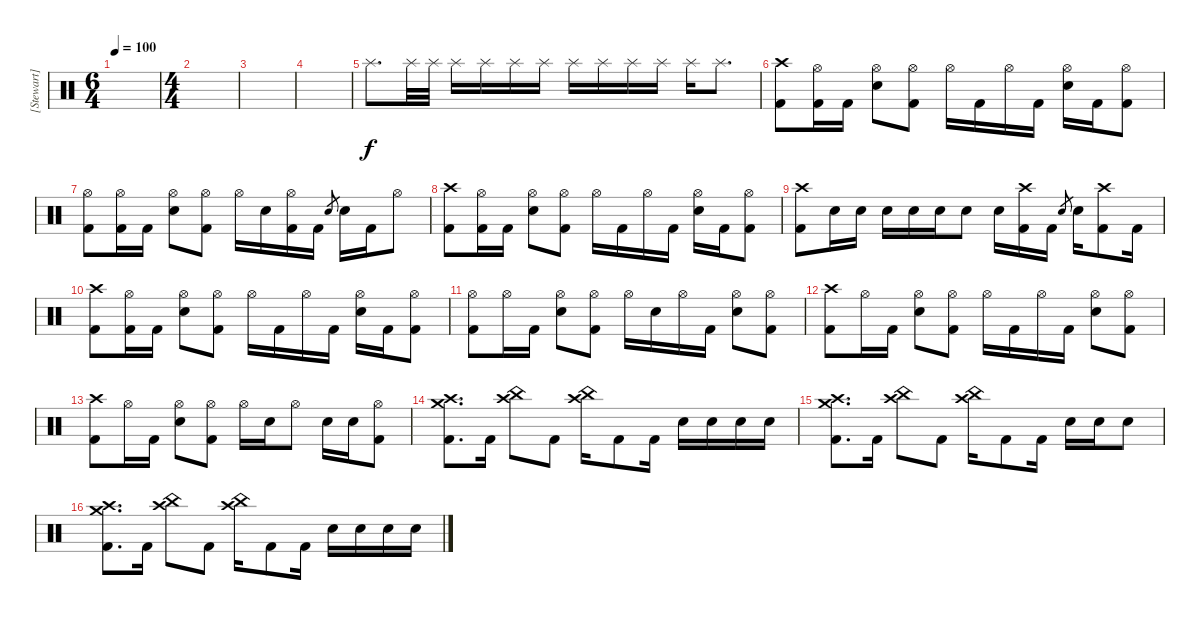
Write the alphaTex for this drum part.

\track ("[Stewart]" "[Stewart]") {instrument percussion}
\staff {score}
\articulation defaults
\ts (6 4)
\tempo 100
\clef neutral
\ks c
|
\ts (4 4)
|
|
|
"Splash (hit)".8{d} "Splash (hit)".32 "Splash (hit)".32 "Splash (hit)".16 "Splash (hit)".16 "Splash (hit)".16 "Splash (hit)".16 "Splash (hit)".16 "Splash (hit)".16 "Splash (hit)".16 "Splash (hit)".16 "Splash (hit)".16 "Splash (hit)".8{d} |
("Crash high (hit)" "Kick (hit) 2").8{dy f} ("Hi-Hat (open)" "Kick (hit) 2").16 "Kick (hit) 2".16 ("Hi-Hat (open)" "Electric Snare (hit)").8 ("Hi-Hat (open)" "Kick (hit) 2").8 "Hi-Hat (open)".16 "Kick (hit) 2".16 "Hi-Hat (open)".16 "Kick (hit) 2".16 ("Hi-Hat (open)" "Electric Snare (hit)").16 "Kick (hit) 2".16 ("Hi-Hat (open)" "Kick (hit) 2").8 |
("Hi-Hat (open)" "Kick (hit) 2").8 ("Hi-Hat (open)" "Kick (hit) 2").16 "Kick (hit) 2".16 ("Hi-Hat (open)" "Electric Snare (hit)").8 ("Hi-Hat (open)" "Kick (hit) 2").8 "Hi-Hat (open)".16 "Electric Snare (hit)".16 ("Hi-Hat (open)" "Kick (hit) 2").16 "Kick (hit) 2".16 "Electric Snare (hit)".8{gr} "Electric Snare (hit)".16 "Kick (hit) 2".16 "Hi-Hat (open)".8 |
("Crash high (hit)" "Kick (hit) 2").8 ("Hi-Hat (open)" "Kick (hit) 2").16 "Kick (hit) 2".16 ("Hi-Hat (open)" "Electric Snare (hit)").8 ("Hi-Hat (open)" "Kick (hit) 2").8 "Hi-Hat (open)".16 "Kick (hit) 2".16 "Hi-Hat (open)".16 "Kick (hit) 2".16 ("Hi-Hat (open)" "Electric Snare (hit)").16 "Kick (hit) 2".16 ("Hi-Hat (open)" "Kick (hit) 2").8 |
("Crash high (hit)" "Kick (hit) 2").8 "Electric Snare (hit)".16 "Electric Snare (hit)".16 "Electric Snare (hit)".16 "Electric Snare (hit)".16 "Electric Snare (hit)".16 "Electric Snare (hit)".8 "Electric Snare (hit)".16 ("Crash high (hit)" "Kick (hit) 2").16 "Kick (hit) 2".16 "Electric Snare (hit)".8{gr} "Electric Snare (hit)".16 ("Crash high (hit)" "Kick (hit) 2").8 "Kick (hit) 2".16 |
("Crash high (hit)" "Kick (hit) 2").8 ("Hi-Hat (open)" "Kick (hit) 2").16 "Kick (hit) 2".16 ("Hi-Hat (open)" "Electric Snare (hit)").8 ("Hi-Hat (open)" "Kick (hit) 2").8 "Hi-Hat (open)".16 "Kick (hit) 2".16 "Hi-Hat (open)".16 "Kick (hit) 2".16 ("Hi-Hat (open)" "Electric Snare (hit)").16 "Kick (hit) 2".16 ("Hi-Hat (open)" "Kick (hit) 2").8 |
("Hi-Hat (open)" "Kick (hit) 2").8 "Hi-Hat (open)".16 "Kick (hit) 2".16 ("Hi-Hat (open)" "Electric Snare (hit)").8 ("Hi-Hat (open)" "Kick (hit) 2").8 "Hi-Hat (open)".16 "Electric Snare (hit)".16 "Hi-Hat (open)".16 "Kick (hit) 2".16 ("Hi-Hat (open)" "Electric Snare (hit)").8 ("Hi-Hat (open)" "Kick (hit) 2").8 |
("Crash high (hit)" "Kick (hit) 2").8 "Hi-Hat (open)".16 "Kick (hit) 2".16 ("Hi-Hat (open)" "Electric Snare (hit)").8 ("Hi-Hat (open)" "Kick (hit) 2").8 "Hi-Hat (open)".16 "Kick (hit) 2".16 "Hi-Hat (open)".16 "Kick (hit) 2".16 ("Hi-Hat (open)" "Electric Snare (hit)").8 ("Hi-Hat (open)" "Kick (hit) 2").8 |
("Crash high (hit)" "Kick (hit) 2").8 "Hi-Hat (open)".16 "Kick (hit) 2".16 ("Hi-Hat (open)" "Electric Snare (hit)").8 ("Hi-Hat (open)" "Kick (hit) 2").8 "Hi-Hat (open)".16 "Electric Snare (hit)".16 "Hi-Hat (open)".8 "Electric Snare (hit)".16 "Electric Snare (hit)".16 ("Hi-Hat (open)" "Kick (hit) 2").8 |
("Crash high (hit)" "Crash medium (hit)" "Kick (hit) 2").8{d} "Kick (hit) 2".16 ("Crash high (hit)" "China (hit)").8 "Kick (hit) 2".8 ("Crash high (hit)" "China (hit)").16 "Kick (hit) 2".8 "Kick (hit) 2".16 "Electric Snare (hit)".16 "Electric Snare (hit)".16 "Electric Snare (hit)".16 "Electric Snare (hit)".16 |
("Crash high (hit)" "Crash medium (hit)" "Kick (hit) 2").8{d} "Kick (hit) 2".16 ("Crash high (hit)" "China (hit)").8 "Kick (hit) 2".8 ("Crash high (hit)" "China (hit)").16 "Kick (hit) 2".8 "Kick (hit) 2".16 "Electric Snare (hit)".16 "Electric Snare (hit)".16 "Electric Snare (hit)".8 |
("Crash high (hit)" "Crash medium (hit)" "Kick (hit) 2").8{d} "Kick (hit) 2".16 ("Crash high (hit)" "China (hit)").8 "Kick (hit) 2".8 ("Crash high (hit)" "China (hit)").16 "Kick (hit) 2".8 "Kick (hit) 2".16 "Electric Snare (hit)".16 "Electric Snare (hit)".16 "Electric Snare (hit)".16 "Electric Snare (hit)".16
